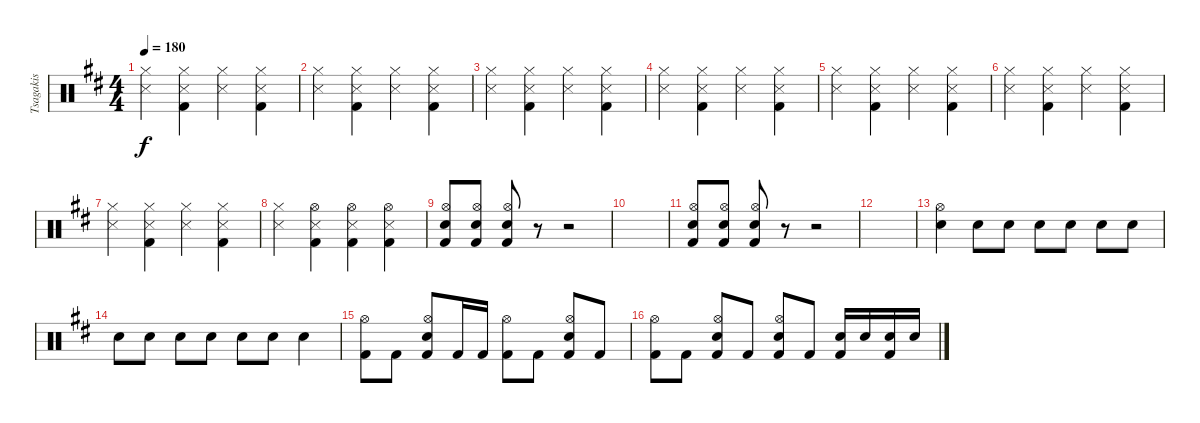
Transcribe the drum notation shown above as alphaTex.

\track ("Tsagakis" "Tsagakis") {instrument percussion}
\staff {score}
\articulation defaults
\ts (4 4)
\tempo 180
\clef neutral
\ks d
("Hi-Hat (closed)" "Snare (side stick) 3").4{dy f} ("Hi-Hat (closed)" "Snare (side stick) 3" "Kick (hit) 2").4 ("Hi-Hat (closed)" "Snare (side stick) 3").4 ("Hi-Hat (closed)" "Snare (side stick) 3" "Kick (hit) 2").4 |
("Hi-Hat (closed)" "Snare (side stick) 3").4 ("Hi-Hat (closed)" "Snare (side stick) 3" "Kick (hit) 2").4 ("Hi-Hat (closed)" "Snare (side stick) 3").4 ("Hi-Hat (closed)" "Snare (side stick) 3" "Kick (hit) 2").4 |
("Hi-Hat (closed)" "Snare (side stick) 3").4 ("Hi-Hat (closed)" "Snare (side stick) 3" "Kick (hit) 2").4 ("Hi-Hat (closed)" "Snare (side stick) 3").4 ("Hi-Hat (closed)" "Snare (side stick) 3" "Kick (hit) 2").4 |
("Hi-Hat (closed)" "Snare (side stick) 3").4 ("Hi-Hat (closed)" "Snare (side stick) 3" "Kick (hit) 2").4 ("Hi-Hat (closed)" "Snare (side stick) 3").4 ("Hi-Hat (closed)" "Snare (side stick) 3" "Kick (hit) 2").4 |
("Hi-Hat (closed)" "Snare (side stick) 3").4 ("Hi-Hat (closed)" "Snare (side stick) 3" "Kick (hit) 2").4 ("Hi-Hat (closed)" "Snare (side stick) 3").4 ("Hi-Hat (closed)" "Snare (side stick) 3" "Kick (hit) 2").4 |
("Hi-Hat (closed)" "Snare (side stick) 3").4 ("Hi-Hat (closed)" "Snare (side stick) 3" "Kick (hit) 2").4 ("Hi-Hat (closed)" "Snare (side stick) 3").4 ("Hi-Hat (closed)" "Snare (side stick) 3" "Kick (hit) 2").4 |
("Hi-Hat (closed)" "Snare (side stick) 3").4 ("Hi-Hat (closed)" "Snare (side stick) 3" "Kick (hit) 2").4 ("Hi-Hat (closed)" "Snare (side stick) 3").4 ("Hi-Hat (closed)" "Snare (side stick) 3" "Kick (hit) 2").4 |
("Hi-Hat (closed)" "Snare (side stick) 3").4 ("Hi-Hat (open)" "Snare (side stick) 3" "Kick (hit) 2").4 ("Hi-Hat (open)" "Snare (side stick) 3" "Kick (hit) 2").4 ("Hi-Hat (open)" "Snare (side stick) 3" "Kick (hit) 2").4 |
("Hi-Hat (open)" "Electric Snare (hit)" "Kick (hit) 2").8 ("Hi-Hat (open)" "Electric Snare (hit)" "Kick (hit) 2").8 ("Hi-Hat (open)" "Electric Snare (hit)" "Kick (hit) 2").8 r.8 r.2 |
|
("Hi-Hat (open)" "Electric Snare (hit)" "Kick (hit) 2").8 ("Hi-Hat (open)" "Electric Snare (hit)" "Kick (hit) 2").8 ("Hi-Hat (open)" "Electric Snare (hit)" "Kick (hit) 2").8 r.8 r.2 |
|
("Hi-Hat (open)" "Electric Snare (hit)").4 "Electric Snare (hit)".8 "Electric Snare (hit)".8 "Electric Snare (hit)".8 "Electric Snare (hit)".8 "Electric Snare (hit)".8 "Electric Snare (hit)".8 |
"Electric Snare (hit)".8 "Electric Snare (hit)".8 "Electric Snare (hit)".8 "Electric Snare (hit)".8 "Electric Snare (hit)".8 "Electric Snare (hit)".8 "Electric Snare (hit)".4 |
("Hi-Hat (open)" "Kick (hit) 2").8 "Kick (hit) 2".8 ("Hi-Hat (open)" "Electric Snare (hit)" "Kick (hit) 2").8 "Kick (hit) 2".16 "Kick (hit) 2".16 ("Hi-Hat (open)" "Kick (hit) 2").8 "Kick (hit) 2".8 ("Hi-Hat (open)" "Electric Snare (hit)" "Kick (hit) 2").8 "Kick (hit) 2".8 |
("Hi-Hat (open)" "Kick (hit) 2").8 "Kick (hit) 2".8 ("Hi-Hat (open)" "Electric Snare (hit)" "Kick (hit) 2").8 "Kick (hit) 2".8 ("Hi-Hat (open)" "Electric Snare (hit)" "Kick (hit) 2").8 "Kick (hit) 2".8 ("Electric Snare (hit)" "Kick (hit) 2").16 "Electric Snare (hit)".16 ("Electric Snare (hit)" "Kick (hit) 2").16 "Electric Snare (hit)".16
